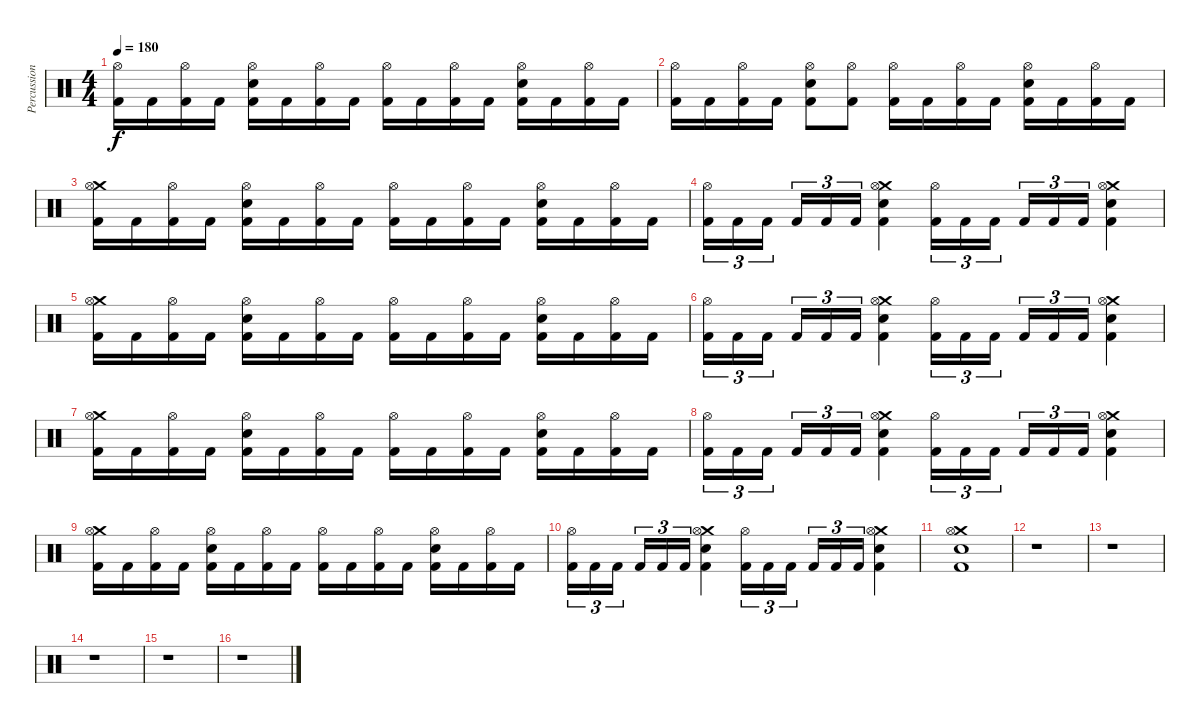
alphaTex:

\track ("Percussion" "Percussion") {instrument percussion}
\staff {score}
\articulation defaults
\ts (4 4)
\tempo 180
\clef neutral
\ks c
("Hi-Hat (open)" "Kick (hit) 2").16{dy f} "Kick (hit) 2".16 ("Hi-Hat (open)" "Kick (hit) 2").16 "Kick (hit) 2".16 ("Hi-Hat (open)" "Electric Snare (hit)" "Kick (hit) 2").16 "Kick (hit) 2".16 ("Hi-Hat (open)" "Kick (hit) 2").16 "Kick (hit) 2".16 ("Hi-Hat (open)" "Kick (hit) 2").16 "Kick (hit) 2".16 ("Hi-Hat (open)" "Kick (hit) 2").16 "Kick (hit) 2".16 ("Hi-Hat (open)" "Electric Snare (hit)" "Kick (hit) 2").16 "Kick (hit) 2".16 ("Hi-Hat (open)" "Kick (hit) 2").16 "Kick (hit) 2".16 |
("Hi-Hat (open)" "Kick (hit) 2").16 "Kick (hit) 2".16 ("Hi-Hat (open)" "Kick (hit) 2").16 "Kick (hit) 2".16 ("Hi-Hat (open)" "Electric Snare (hit)" "Kick (hit) 2").8 ("Hi-Hat (open)" "Kick (hit) 2").8 ("Hi-Hat (open)" "Kick (hit) 2").16 "Kick (hit) 2".16 ("Hi-Hat (open)" "Kick (hit) 2").16 "Kick (hit) 2".16 ("Hi-Hat (open)" "Electric Snare (hit)" "Kick (hit) 2").16 "Kick (hit) 2".16 ("Hi-Hat (open)" "Kick (hit) 2").16 "Kick (hit) 2".16 |
("Crash medium (hit)" "Hi-Hat (open)" "Kick (hit) 2").16 "Kick (hit) 2".16 ("Hi-Hat (open)" "Kick (hit) 2").16 "Kick (hit) 2".16 ("Hi-Hat (open)" "Electric Snare (hit)" "Kick (hit) 2").16 "Kick (hit) 2".16 ("Hi-Hat (open)" "Kick (hit) 2").16 "Kick (hit) 2".16 ("Hi-Hat (open)" "Kick (hit) 2").16 "Kick (hit) 2".16 ("Hi-Hat (open)" "Kick (hit) 2").16 "Kick (hit) 2".16 ("Hi-Hat (open)" "Electric Snare (hit)" "Kick (hit) 2").16 "Kick (hit) 2".16 ("Hi-Hat (open)" "Kick (hit) 2").16 "Kick (hit) 2".16 |
("Hi-Hat (open)" "Kick (hit) 2").16{tu (3 2)} "Kick (hit) 2".16{tu (3 2)} "Kick (hit) 2".16{tu (3 2)} "Kick (hit) 2".16{tu (3 2)} "Kick (hit) 2".16{tu (3 2)} "Kick (hit) 2".16{tu (3 2)} ("Crash medium (hit)" "Hi-Hat (open)" "Electric Snare (hit)" "Kick (hit) 2").4 ("Hi-Hat (open)" "Kick (hit) 2").16{tu (3 2)} "Kick (hit) 2".16{tu (3 2)} "Kick (hit) 2".16{tu (3 2)} "Kick (hit) 2".16{tu (3 2)} "Kick (hit) 2".16{tu (3 2)} "Kick (hit) 2".16{tu (3 2)} ("Crash medium (hit)" "Hi-Hat (open)" "Electric Snare (hit)" "Kick (hit) 2").4 |
("Crash medium (hit)" "Hi-Hat (open)" "Kick (hit) 2").16 "Kick (hit) 2".16 ("Hi-Hat (open)" "Kick (hit) 2").16 "Kick (hit) 2".16 ("Hi-Hat (open)" "Electric Snare (hit)" "Kick (hit) 2").16 "Kick (hit) 2".16 ("Hi-Hat (open)" "Kick (hit) 2").16 "Kick (hit) 2".16 ("Hi-Hat (open)" "Kick (hit) 2").16 "Kick (hit) 2".16 ("Hi-Hat (open)" "Kick (hit) 2").16 "Kick (hit) 2".16 ("Hi-Hat (open)" "Electric Snare (hit)" "Kick (hit) 2").16 "Kick (hit) 2".16 ("Hi-Hat (open)" "Kick (hit) 2").16 "Kick (hit) 2".16 |
("Hi-Hat (open)" "Kick (hit) 2").16{tu (3 2)} "Kick (hit) 2".16{tu (3 2)} "Kick (hit) 2".16{tu (3 2)} "Kick (hit) 2".16{tu (3 2)} "Kick (hit) 2".16{tu (3 2)} "Kick (hit) 2".16{tu (3 2)} ("Crash medium (hit)" "Hi-Hat (open)" "Electric Snare (hit)" "Kick (hit) 2").4 ("Hi-Hat (open)" "Kick (hit) 2").16{tu (3 2)} "Kick (hit) 2".16{tu (3 2)} "Kick (hit) 2".16{tu (3 2)} "Kick (hit) 2".16{tu (3 2)} "Kick (hit) 2".16{tu (3 2)} "Kick (hit) 2".16{tu (3 2)} ("Crash medium (hit)" "Hi-Hat (open)" "Electric Snare (hit)" "Kick (hit) 2").4 |
("Crash medium (hit)" "Hi-Hat (open)" "Kick (hit) 2").16 "Kick (hit) 2".16 ("Hi-Hat (open)" "Kick (hit) 2").16 "Kick (hit) 2".16 ("Hi-Hat (open)" "Electric Snare (hit)" "Kick (hit) 2").16 "Kick (hit) 2".16 ("Hi-Hat (open)" "Kick (hit) 2").16 "Kick (hit) 2".16 ("Hi-Hat (open)" "Kick (hit) 2").16 "Kick (hit) 2".16 ("Hi-Hat (open)" "Kick (hit) 2").16 "Kick (hit) 2".16 ("Hi-Hat (open)" "Electric Snare (hit)" "Kick (hit) 2").16 "Kick (hit) 2".16 ("Hi-Hat (open)" "Kick (hit) 2").16 "Kick (hit) 2".16 |
("Hi-Hat (open)" "Kick (hit) 2").16{tu (3 2)} "Kick (hit) 2".16{tu (3 2)} "Kick (hit) 2".16{tu (3 2)} "Kick (hit) 2".16{tu (3 2)} "Kick (hit) 2".16{tu (3 2)} "Kick (hit) 2".16{tu (3 2)} ("Crash medium (hit)" "Hi-Hat (open)" "Electric Snare (hit)" "Kick (hit) 2").4 ("Hi-Hat (open)" "Kick (hit) 2").16{tu (3 2)} "Kick (hit) 2".16{tu (3 2)} "Kick (hit) 2".16{tu (3 2)} "Kick (hit) 2".16{tu (3 2)} "Kick (hit) 2".16{tu (3 2)} "Kick (hit) 2".16{tu (3 2)} ("Crash medium (hit)" "Hi-Hat (open)" "Electric Snare (hit)" "Kick (hit) 2").4 |
("Crash medium (hit)" "Hi-Hat (open)" "Kick (hit) 2").16 "Kick (hit) 2".16 ("Hi-Hat (open)" "Kick (hit) 2").16 "Kick (hit) 2".16 ("Hi-Hat (open)" "Electric Snare (hit)" "Kick (hit) 2").16 "Kick (hit) 2".16 ("Hi-Hat (open)" "Kick (hit) 2").16 "Kick (hit) 2".16 ("Hi-Hat (open)" "Kick (hit) 2").16 "Kick (hit) 2".16 ("Hi-Hat (open)" "Kick (hit) 2").16 "Kick (hit) 2".16 ("Hi-Hat (open)" "Electric Snare (hit)" "Kick (hit) 2").16 "Kick (hit) 2".16 ("Hi-Hat (open)" "Kick (hit) 2").16 "Kick (hit) 2".16 |
("Hi-Hat (open)" "Kick (hit) 2").16{tu (3 2)} "Kick (hit) 2".16{tu (3 2)} "Kick (hit) 2".16{tu (3 2)} "Kick (hit) 2".16{tu (3 2)} "Kick (hit) 2".16{tu (3 2)} "Kick (hit) 2".16{tu (3 2)} ("Crash medium (hit)" "Hi-Hat (open)" "Electric Snare (hit)" "Kick (hit) 2").4 ("Hi-Hat (open)" "Kick (hit) 2").16{tu (3 2)} "Kick (hit) 2".16{tu (3 2)} "Kick (hit) 2".16{tu (3 2)} "Kick (hit) 2".16{tu (3 2)} "Kick (hit) 2".16{tu (3 2)} "Kick (hit) 2".16{tu (3 2)} ("Crash medium (hit)" "Hi-Hat (open)" "Electric Snare (hit)" "Kick (hit) 2").4 |
("Crash medium (hit)" "Hi-Hat (open)" "Electric Snare (hit)" "Kick (hit) 2").1 |
r.1 |
r.1 |
r.1 |
r.1 |
r.1
